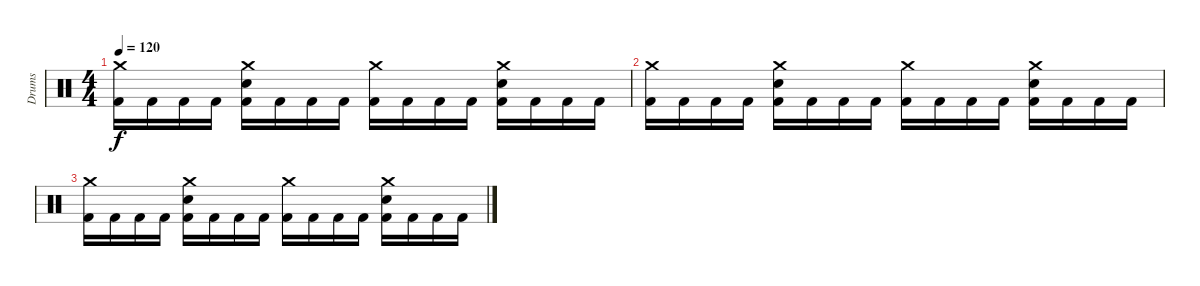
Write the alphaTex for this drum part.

\track ("Drums" "Drums") {instrument percussion}
\staff {score}
\articulation defaults
\ts (4 4)
\tempo 120
\clef neutral
\ks c
("Crash medium (hit)" "Kick (hit) 2").16{dy f} "Kick (hit) 2".16 "Kick (hit) 2".16 "Kick (hit) 2".16 ("Crash medium (hit)" "Electric Snare (hit)" "Kick (hit) 2").16 "Kick (hit) 2".16 "Kick (hit) 2".16 "Kick (hit) 2".16 ("Crash medium (hit)" "Kick (hit) 2").16 "Kick (hit) 2".16 "Kick (hit) 2".16 "Kick (hit) 2".16 ("Crash medium (hit)" "Electric Snare (hit)" "Kick (hit) 2").16 "Kick (hit) 2".16 "Kick (hit) 2".16 "Kick (hit) 2".16 |
("Crash medium (hit)" "Kick (hit) 2").16 "Kick (hit) 2".16 "Kick (hit) 2".16 "Kick (hit) 2".16 ("Crash medium (hit)" "Electric Snare (hit)" "Kick (hit) 2").16 "Kick (hit) 2".16 "Kick (hit) 2".16 "Kick (hit) 2".16 ("Crash medium (hit)" "Kick (hit) 2").16 "Kick (hit) 2".16 "Kick (hit) 2".16 "Kick (hit) 2".16 ("Crash medium (hit)" "Electric Snare (hit)" "Kick (hit) 2").16 "Kick (hit) 2".16 "Kick (hit) 2".16 "Kick (hit) 2".16 |
("Crash medium (hit)" "Kick (hit) 2").16 "Kick (hit) 2".16 "Kick (hit) 2".16 "Kick (hit) 2".16 ("Crash medium (hit)" "Electric Snare (hit)" "Kick (hit) 2").16 "Kick (hit) 2".16 "Kick (hit) 2".16 "Kick (hit) 2".16 ("Crash medium (hit)" "Kick (hit) 2").16 "Kick (hit) 2".16 "Kick (hit) 2".16 "Kick (hit) 2".16 ("Crash medium (hit)" "Electric Snare (hit)" "Kick (hit) 2").16 "Kick (hit) 2".16 "Kick (hit) 2".16 "Kick (hit) 2".16
